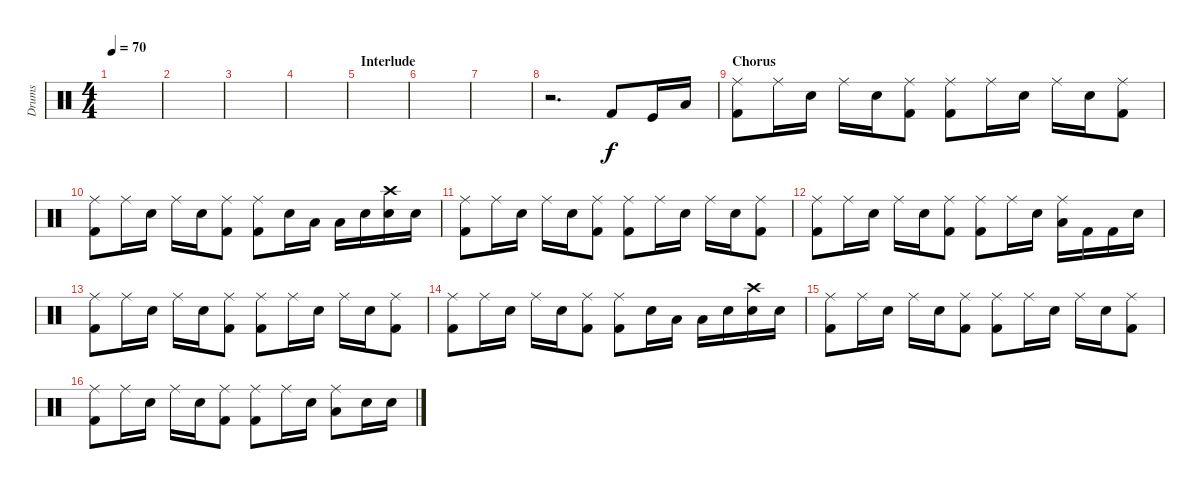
\track ("Drums" "Drums") {instrument percussion}
\staff {score}
\articulation defaults
\ts (4 4)
\tempo 70
\clef neutral
\ks c
|
|
|
|
\section ("" "Interlude")
|
|
|
r.2{d} "Kick (hit) 2".8 "Kick (hit)".16 "Low Tom (hit)".16 |
\section ("" "Chorus")
("Ride (middle)" "Kick (hit) 2").8 "Ride (middle)".16 "Snare (hit) 2".16 "Ride (middle)".16 "Snare (hit) 2".16 ("Ride (middle)" "Kick (hit) 2").8 ("Ride (middle)" "Kick (hit) 2").8 "Ride (middle)".16 "Snare (hit) 2".16 "Ride (middle)".16 "Snare (hit) 2".16 ("Ride (middle)" "Kick (hit) 2").8 |
("Ride (middle)" "Kick (hit) 2").8 "Ride (middle)".16 "Snare (hit) 2".16 "Ride (middle)".16 "Snare (hit) 2".16 ("Ride (middle)" "Kick (hit) 2").8 ("Ride (middle)" "Kick (hit) 2").8 "Snare (hit) 2".16 "Low Tom (hit)".16 "Low Tom (hit)".16 "Snare (hit) 2".16 ("Crash high (hit)" "Snare (hit) 2").16 "Snare (hit) 2".16 |
("Ride (middle)" "Kick (hit) 2").8 "Ride (middle)".16 "Snare (hit) 2".16 "Ride (middle)".16 "Snare (hit) 2".16 ("Ride (middle)" "Kick (hit) 2").8 ("Ride (middle)" "Kick (hit) 2").8 "Ride (middle)".16 "Snare (hit) 2".16 "Ride (middle)".16 "Snare (hit) 2".16 ("Ride (middle)" "Kick (hit) 2").8 |
("Ride (middle)" "Kick (hit) 2").8 "Ride (middle)".16 "Snare (hit) 2".16 "Ride (middle)".16 "Snare (hit) 2".16 ("Ride (middle)" "Kick (hit) 2").8 ("Ride (middle)" "Kick (hit) 2").8 "Ride (middle)".16 "Snare (hit) 2".16 ("Ride (middle)" "Low Tom (hit)").16 "Kick (hit) 2".16 "Kick (hit) 2".16 "Snare (hit) 2".16 |
("Ride (middle)" "Kick (hit) 2").8 "Ride (middle)".16 "Snare (hit) 2".16 "Ride (middle)".16 "Snare (hit) 2".16 ("Ride (middle)" "Kick (hit) 2").8 ("Ride (middle)" "Kick (hit) 2").8 "Ride (middle)".16 "Snare (hit) 2".16 "Ride (middle)".16 "Snare (hit) 2".16 ("Ride (middle)" "Kick (hit) 2").8 |
("Ride (middle)" "Kick (hit) 2").8 "Ride (middle)".16 "Snare (hit) 2".16 "Ride (middle)".16 "Snare (hit) 2".16 ("Ride (middle)" "Kick (hit) 2").8 ("Ride (middle)" "Kick (hit) 2").8 "Snare (hit) 2".16 "Low Tom (hit)".16 "Low Tom (hit)".16 "Snare (hit) 2".16 ("Crash high (hit)" "Snare (hit) 2").16 "Snare (hit) 2".16 |
("Ride (middle)" "Kick (hit) 2").8 "Ride (middle)".16 "Snare (hit) 2".16 "Ride (middle)".16 "Snare (hit) 2".16 ("Ride (middle)" "Kick (hit) 2").8 ("Ride (middle)" "Kick (hit) 2").8 "Ride (middle)".16 "Snare (hit) 2".16 "Ride (middle)".16 "Snare (hit) 2".16 ("Ride (middle)" "Kick (hit) 2").8 |
("Ride (middle)" "Kick (hit) 2").8 "Ride (middle)".16 "Snare (hit) 2".16 "Ride (middle)".16 "Snare (hit) 2".16 ("Ride (middle)" "Kick (hit) 2").8 ("Ride (middle)" "Kick (hit) 2").8 "Ride (middle)".16 "Snare (hit) 2".16 ("Ride (middle)" "Low Tom (hit)").8 "Snare (hit) 2".16 "Snare (hit) 2".16
